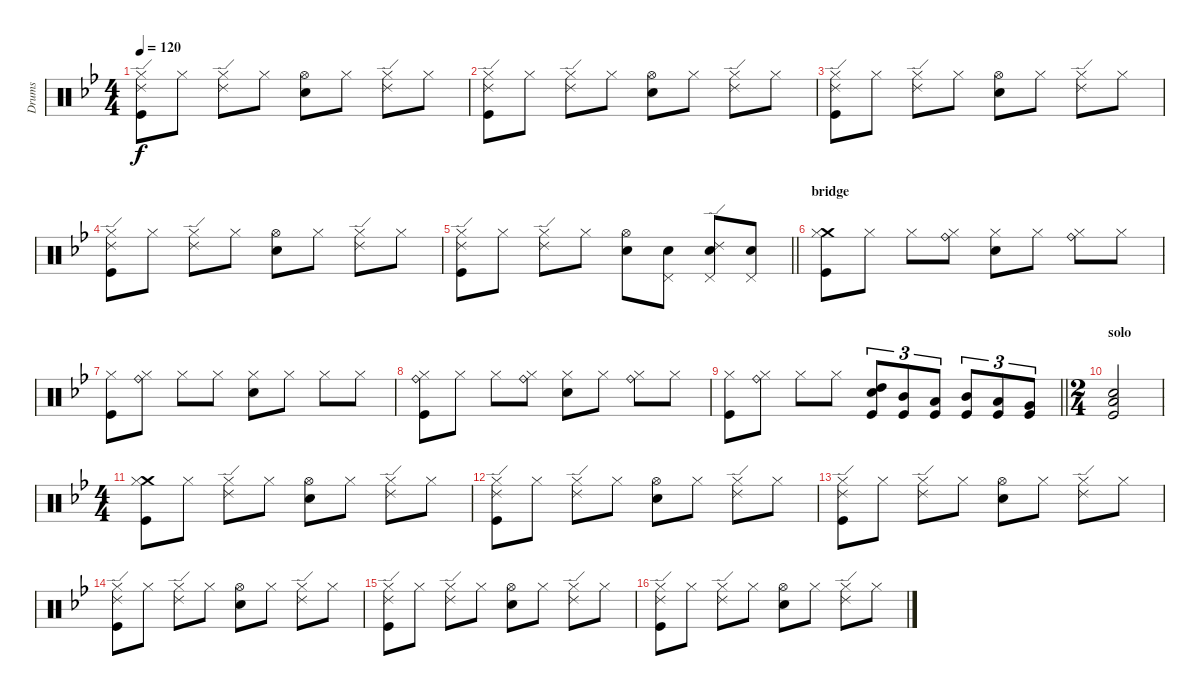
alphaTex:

\track ("Drums" "Drums") {instrument percussion}
\staff {score}
\articulation defaults
\ts (4 4)
\tempo 120
\clef neutral
\ks gminor
("Hi-Hat (closed)" "Ride (edge) 2" "Kick (hit)").8{dy f} "Hi-Hat (closed)".8 ("Hi-Hat (closed)" "Ride (edge) 2").8 "Hi-Hat (closed)".8 ("Hi-Hat (open)" "Electric Snare (hit)").8 "Hi-Hat (closed)".8 ("Hi-Hat (closed)" "Ride (edge) 2").8 "Hi-Hat (closed)".8 |
("Hi-Hat (closed)" "Ride (edge) 2" "Kick (hit)").8 "Hi-Hat (closed)".8 ("Hi-Hat (closed)" "Ride (edge) 2").8 "Hi-Hat (closed)".8 ("Hi-Hat (open)" "Electric Snare (hit)").8 "Hi-Hat (closed)".8 ("Hi-Hat (closed)" "Ride (edge) 2").8 "Hi-Hat (closed)".8 |
("Hi-Hat (closed)" "Ride (edge) 2" "Kick (hit)").8 "Hi-Hat (closed)".8 ("Hi-Hat (closed)" "Ride (edge) 2").8 "Hi-Hat (closed)".8 ("Hi-Hat (open)" "Electric Snare (hit)").8 "Hi-Hat (closed)".8 ("Hi-Hat (closed)" "Ride (edge) 2").8 "Hi-Hat (closed)".8 |
("Hi-Hat (closed)" "Ride (edge) 2" "Kick (hit)").8 "Hi-Hat (closed)".8 ("Hi-Hat (closed)" "Ride (edge) 2").8 "Hi-Hat (closed)".8 ("Hi-Hat (open)" "Electric Snare (hit)").8 "Hi-Hat (closed)".8 ("Hi-Hat (closed)" "Ride (edge) 2").8 "Hi-Hat (closed)".8 |
\barLineRight lightlight
("Hi-Hat (closed)" "Ride (edge) 2" "Kick (hit)").8 "Hi-Hat (closed)".8 ("Hi-Hat (closed)" "Ride (edge) 2").8 "Hi-Hat (closed)".8 ("Hi-Hat (open)" "Electric Snare (hit)").8 ("Pedal Hi-Hat (hit)" "Electric Snare (hit)").8 ("Pedal Hi-Hat (hit)" "Ride (edge) 2" "Electric Snare (hit)").8 ("Pedal Hi-Hat (hit)" "Electric Snare (hit)").8 |
\section ("" "bridge")
("Crash medium (hit)" "Hi-Hat (closed)" "Kick (hit)").8 "Hi-Hat (closed)".8 "Hi-Hat (closed)".8 ("Ride (bell)" "Hi-Hat (closed)").8 ("Hi-Hat (closed)" "Electric Snare (hit)").8 "Hi-Hat (closed)".8 ("Ride (bell)" "Hi-Hat (closed)").8 "Hi-Hat (closed)".8 |
("Hi-Hat (closed)" "Kick (hit)").8 ("Ride (bell)" "Hi-Hat (closed)").8 "Hi-Hat (closed)".8 "Hi-Hat (closed)".8 ("Hi-Hat (closed)" "Electric Snare (hit)").8 "Hi-Hat (closed)".8 "Hi-Hat (closed)".8 "Hi-Hat (closed)".8 |
("Ride (bell)" "Hi-Hat (closed)" "Kick (hit)").8 "Hi-Hat (closed)".8 "Hi-Hat (closed)".8 ("Ride (bell)" "Hi-Hat (closed)").8 ("Hi-Hat (closed)" "Electric Snare (hit)").8 "Hi-Hat (closed)".8 ("Ride (bell)" "Hi-Hat (closed)").8 "Hi-Hat (closed)".8 |
\barLineRight lightlight
("Hi-Hat (closed)" "Kick (hit)").8 ("Ride (bell)" "Hi-Hat (closed)").8 "Hi-Hat (closed)".8 "Hi-Hat (closed)".8 ("High Tom (hit)" "Electric Snare (hit)" "Kick (hit)").8{tu (3 2)} ("Mid Tom (hit)" "Kick (hit)").8{tu (3 2)} ("Low Tom (hit)" "Kick (hit)").8{tu (3 2)} ("Mid Tom (hit)" "Kick (hit)").8{tu (3 2)} ("Low Tom (hit)" "Kick (hit)").8{tu (3 2)} ("Very Low Tom (hit)" "Kick (hit)").8{tu (3 2)} |
\ts (2 4)
\section ("" "solo")
("Low Tom (hit)" "Electric Snare (hit)" "Kick (hit)").2 |
\ts (4 4)
("Crash medium (hit)" "Hi-Hat (closed)" "Kick (hit)").8 "Hi-Hat (closed)".8 ("Hi-Hat (closed)" "Ride (edge) 2").8 "Hi-Hat (closed)".8 ("Hi-Hat (open)" "Electric Snare (hit)").8 "Hi-Hat (closed)".8 ("Hi-Hat (closed)" "Ride (edge) 2").8 "Hi-Hat (closed)".8 |
("Hi-Hat (closed)" "Ride (edge) 2" "Kick (hit)").8 "Hi-Hat (closed)".8 ("Hi-Hat (closed)" "Ride (edge) 2").8 "Hi-Hat (closed)".8 ("Hi-Hat (open)" "Electric Snare (hit)").8 "Hi-Hat (closed)".8 ("Hi-Hat (closed)" "Ride (edge) 2").8 "Hi-Hat (closed)".8 |
("Hi-Hat (closed)" "Ride (edge) 2" "Kick (hit)").8 "Hi-Hat (closed)".8 ("Hi-Hat (closed)" "Ride (edge) 2").8 "Hi-Hat (closed)".8 ("Hi-Hat (open)" "Electric Snare (hit)").8 "Hi-Hat (closed)".8 ("Hi-Hat (closed)" "Ride (edge) 2").8 "Hi-Hat (closed)".8 |
("Hi-Hat (closed)" "Ride (edge) 2" "Kick (hit)").8 "Hi-Hat (closed)".8 ("Hi-Hat (closed)" "Ride (edge) 2").8 "Hi-Hat (closed)".8 ("Hi-Hat (open)" "Electric Snare (hit)").8 "Hi-Hat (closed)".8 ("Hi-Hat (closed)" "Ride (edge) 2").8 "Hi-Hat (closed)".8 |
("Hi-Hat (closed)" "Ride (edge) 2" "Kick (hit)").8 "Hi-Hat (closed)".8 ("Hi-Hat (closed)" "Ride (edge) 2").8 "Hi-Hat (closed)".8 ("Hi-Hat (open)" "Electric Snare (hit)").8 "Hi-Hat (closed)".8 ("Hi-Hat (closed)" "Ride (edge) 2").8 "Hi-Hat (closed)".8 |
("Hi-Hat (closed)" "Ride (edge) 2" "Kick (hit)").8 "Hi-Hat (closed)".8 ("Hi-Hat (closed)" "Ride (edge) 2").8 "Hi-Hat (closed)".8 ("Hi-Hat (open)" "Electric Snare (hit)").8 "Hi-Hat (closed)".8 ("Hi-Hat (closed)" "Ride (edge) 2").8 "Hi-Hat (closed)".8
